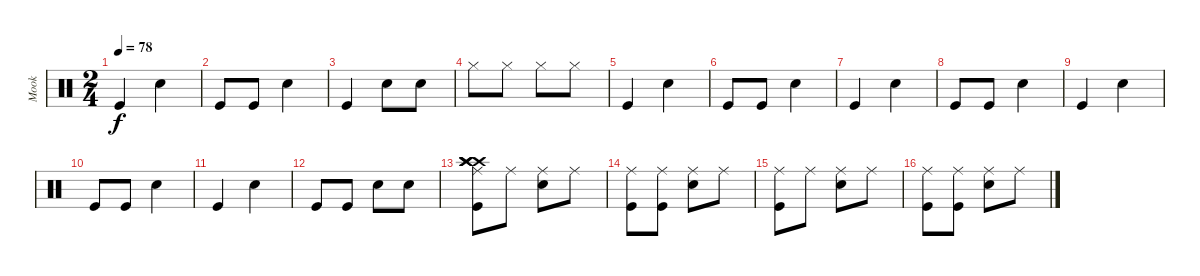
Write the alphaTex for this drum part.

\track ("Mook" "Mook") {instrument percussion}
\staff {score}
\articulation defaults
\ts (2 4)
\tempo 78
\clef neutral
\ks c "Kick (hit)".4{dy f} "Snare (hit) 2".4
|
"Kick (hit)".8 "Kick (hit)".8 "Snare (hit) 2".4 |
"Kick (hit)".4 "Snare (hit) 2".8 "Snare (hit) 2".8 |
"Hi-Hat (closed)".8 "Hi-Hat (closed)".8 "Hi-Hat (closed)".8 "Hi-Hat (closed)".8 |
"Kick (hit)".4 "Metronome (bell)".4 |
"Kick (hit)".8 "Kick (hit)".8 "Metronome (bell)".4 |
"Kick (hit)".4 "Metronome (bell)".4 |
"Kick (hit)".8 "Kick (hit)".8 "Metronome (bell)".4 |
"Kick (hit)".4 "Metronome (bell)".4 |
"Kick (hit)".8 "Kick (hit)".8 "Metronome (bell)".4 |
"Kick (hit)".4 "Metronome (bell)".4 |
"Kick (hit)".8 "Kick (hit)".8 "Metronome (bell)".8 "Metronome (bell)".8 |
("Ride (middle)" "Kick (hit)" "Crash high (hit)" "Crash high (hit)" "Crash high (hit)" "Crash high (hit)").8 "Ride (middle)".8 ("Ride (middle)" "Metronome (bell)").8 "Ride (middle)".8 |
("Ride (middle)" "Kick (hit)").8 ("Ride (middle)" "Kick (hit)").8 ("Ride (middle)" "Metronome (bell)").8 "Ride (middle)".8 |
("Ride (middle)" "Kick (hit)").8 "Ride (middle)".8 ("Ride (middle)" "Metronome (bell)").8 "Ride (middle)".8 |
("Ride (middle)" "Kick (hit)").8 ("Ride (middle)" "Kick (hit)").8 ("Ride (middle)" "Metronome (bell)").8 "Ride (middle)".8
